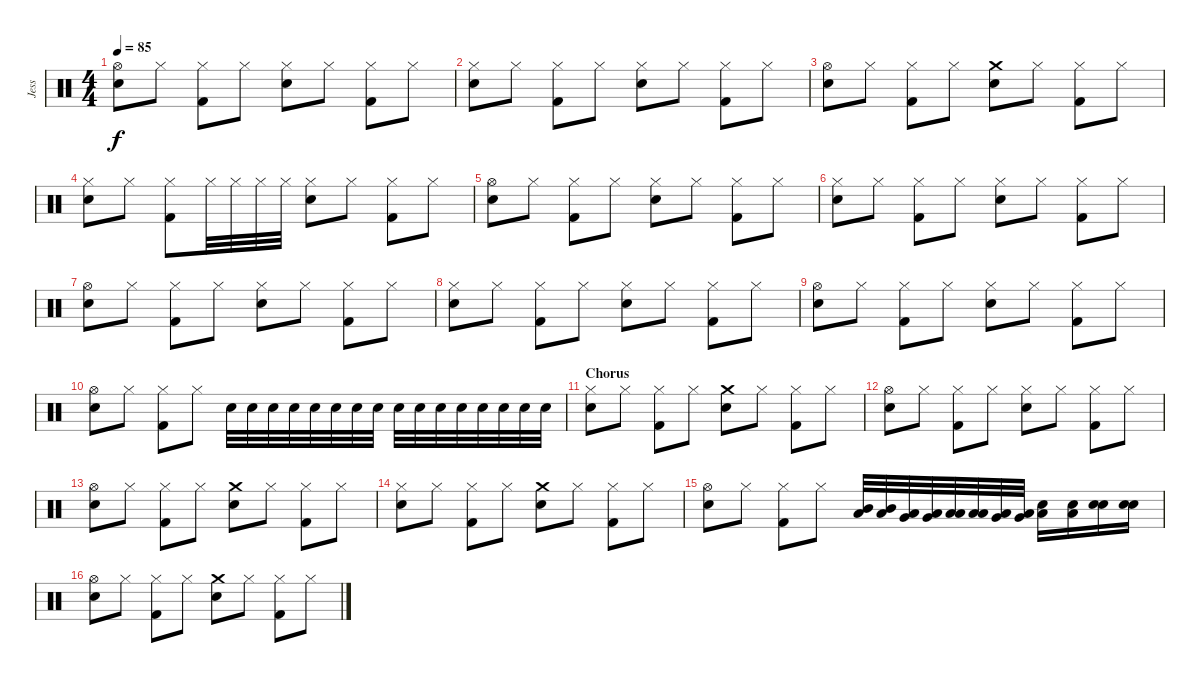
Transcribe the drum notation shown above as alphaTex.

\track ("Jess" "Jess") {instrument percussion}
\staff {score}
\articulation defaults
\ts (4 4)
\tempo 85
\clef neutral
\ks c
("Hi-Hat (open)" "Snare (hit) 2").8{dy f} "Hi-Hat (closed)".8 ("Hi-Hat (closed)" "Kick (hit) 2").8 "Hi-Hat (closed)".8 ("Hi-Hat (closed)" "Snare (hit) 2").8 "Hi-Hat (closed)".8 ("Hi-Hat (closed)" "Kick (hit) 2").8 "Hi-Hat (closed)".8 |
("Hi-Hat (closed)" "Snare (hit) 2").8 "Hi-Hat (closed)".8 ("Hi-Hat (closed)" "Kick (hit) 2").8 "Hi-Hat (closed)".8 ("Hi-Hat (closed)" "Snare (hit) 2").8 "Hi-Hat (closed)".8 ("Hi-Hat (closed)" "Kick (hit) 2").8 "Hi-Hat (closed)".8 |
("Hi-Hat (open)" "Snare (hit) 2").8 "Hi-Hat (closed)".8 ("Hi-Hat (closed)" "Kick (hit) 2").8 "Hi-Hat (closed)".8 ("Crash medium (hit)" "Snare (hit) 2").8 "Hi-Hat (closed)".8 ("Hi-Hat (closed)" "Kick (hit) 2").8 "Hi-Hat (closed)".8 |
("Hi-Hat (closed)" "Snare (hit) 2").8 "Hi-Hat (closed)".8 ("Hi-Hat (closed)" "Kick (hit) 2").8 "Hi-Hat (closed)".32 "Hi-Hat (closed)".32 "Hi-Hat (closed)".32 "Hi-Hat (closed)".32 ("Hi-Hat (closed)" "Snare (hit) 2").8 "Hi-Hat (closed)".8 ("Hi-Hat (closed)" "Kick (hit) 2").8 "Hi-Hat (closed)".8 |
("Hi-Hat (open)" "Snare (hit) 2").8 "Hi-Hat (closed)".8 ("Hi-Hat (closed)" "Kick (hit) 2").8 "Hi-Hat (closed)".8 ("Hi-Hat (closed)" "Snare (hit) 2").8 "Hi-Hat (closed)".8 ("Hi-Hat (closed)" "Kick (hit) 2").8 "Hi-Hat (closed)".8 |
("Hi-Hat (closed)" "Snare (hit) 2").8 "Hi-Hat (closed)".8 ("Hi-Hat (closed)" "Kick (hit) 2").8 "Hi-Hat (closed)".8 ("Hi-Hat (closed)" "Snare (hit) 2").8 "Hi-Hat (closed)".8 ("Hi-Hat (closed)" "Kick (hit) 2").8 "Hi-Hat (closed)".8 |
("Hi-Hat (open)" "Snare (hit) 2").8 "Hi-Hat (closed)".8 ("Hi-Hat (closed)" "Kick (hit) 2").8 "Hi-Hat (closed)".8 ("Hi-Hat (closed)" "Snare (hit) 2").8 "Hi-Hat (closed)".8 ("Hi-Hat (closed)" "Kick (hit) 2").8 "Hi-Hat (closed)".8 |
("Hi-Hat (closed)" "Snare (hit) 2").8 "Hi-Hat (closed)".8 ("Hi-Hat (closed)" "Kick (hit) 2").8 "Hi-Hat (closed)".8 ("Hi-Hat (closed)" "Snare (hit) 2").8 "Hi-Hat (closed)".8 ("Hi-Hat (closed)" "Kick (hit) 2").8 "Hi-Hat (closed)".8 |
("Hi-Hat (open)" "Snare (hit) 2").8 "Hi-Hat (closed)".8 ("Hi-Hat (closed)" "Kick (hit) 2").8 "Hi-Hat (closed)".8 ("Hi-Hat (closed)" "Snare (hit) 2").8 "Hi-Hat (closed)".8 ("Hi-Hat (closed)" "Kick (hit) 2").8 "Hi-Hat (closed)".8 |
("Hi-Hat (open)" "Snare (hit) 2").8 "Hi-Hat (closed)".8 ("Hi-Hat (closed)" "Kick (hit) 2").8 "Hi-Hat (closed)".8 "Snare (hit) 2".32 "Snare (hit) 2".32 "Snare (hit) 2".32 "Snare (hit) 2".32 "Snare (hit) 2".32 "Snare (hit) 2".32 "Snare (hit) 2".32 "Snare (hit) 2".32 "Snare (hit) 2".32 "Snare (hit) 2".32 "Snare (hit) 2".32 "Snare (hit) 2".32 "Snare (hit) 2".32 "Snare (hit) 2".32 "Snare (hit) 2".32 "Snare (hit) 2".32 |
\section ("" "Chorus")
("Hi-Hat (closed)" "Snare (hit) 2").8 "Hi-Hat (closed)".8 ("Hi-Hat (closed)" "Kick (hit) 2").8 "Hi-Hat (closed)".8 ("Crash medium (hit)" "Snare (hit) 2").8 "Hi-Hat (closed)".8 ("Hi-Hat (closed)" "Kick (hit) 2").8 "Hi-Hat (closed)".8 |
("Hi-Hat (open)" "Snare (hit) 2").8 "Hi-Hat (closed)".8 ("Hi-Hat (closed)" "Kick (hit) 2").8 "Hi-Hat (closed)".8 ("Hi-Hat (closed)" "Snare (hit) 2").8 "Hi-Hat (closed)".8 ("Hi-Hat (closed)" "Kick (hit) 2").8 "Hi-Hat (closed)".8 |
("Hi-Hat (open)" "Snare (hit) 2").8 "Hi-Hat (closed)".8 ("Hi-Hat (closed)" "Kick (hit) 2").8 "Hi-Hat (closed)".8 ("Crash medium (hit)" "Snare (hit) 2").8 "Hi-Hat (closed)".8 ("Hi-Hat (closed)" "Kick (hit) 2").8 "Hi-Hat (closed)".8 |
("Hi-Hat (closed)" "Snare (hit) 2").8 "Hi-Hat (closed)".8 ("Hi-Hat (closed)" "Kick (hit) 2").8 "Hi-Hat (closed)".8 ("Crash medium (hit)" "Snare (hit) 2").8 "Hi-Hat (closed)".8 ("Hi-Hat (closed)" "Kick (hit) 2").8 "Hi-Hat (closed)".8 |
("Hi-Hat (open)" "Snare (hit) 2").8 "Hi-Hat (closed)".8 ("Hi-Hat (closed)" "Kick (hit) 2").8 "Hi-Hat (closed)".8 ("Low Tom (hit)" "Mid Tom (hit)").32 ("Mid Tom (hit)" "Low Tom (hit)").32 ("Very Low Tom (hit)" "Low Tom (hit)").32 ("Very Low Tom (hit)" "Low Tom (hit)").32 ("Low Floor Tom (hit)" "Low Tom (hit)").32 ("Low Floor Tom (hit)" "Low Tom (hit)").32 ("Low Floor Tom (hit)" "Very Low Tom (hit)").32 ("Low Floor Tom (hit)" "Very Low Tom (hit)").32 ("Low Floor Tom (hit)" "Snare (hit) 2").16 ("Low Floor Tom (hit)" "Snare (hit) 2").16 ("Snare (hit) 2" "Snare (hit) 2").16 ("Snare (hit) 2" "Snare (hit) 2").16 |
("Hi-Hat (open)" "Snare (hit) 2").8 "Hi-Hat (closed)".8 ("Hi-Hat (closed)" "Kick (hit) 2").8 "Hi-Hat (closed)".8 ("Crash medium (hit)" "Snare (hit) 2").8 "Hi-Hat (closed)".8 ("Hi-Hat (closed)" "Kick (hit) 2").8 "Hi-Hat (closed)".8
